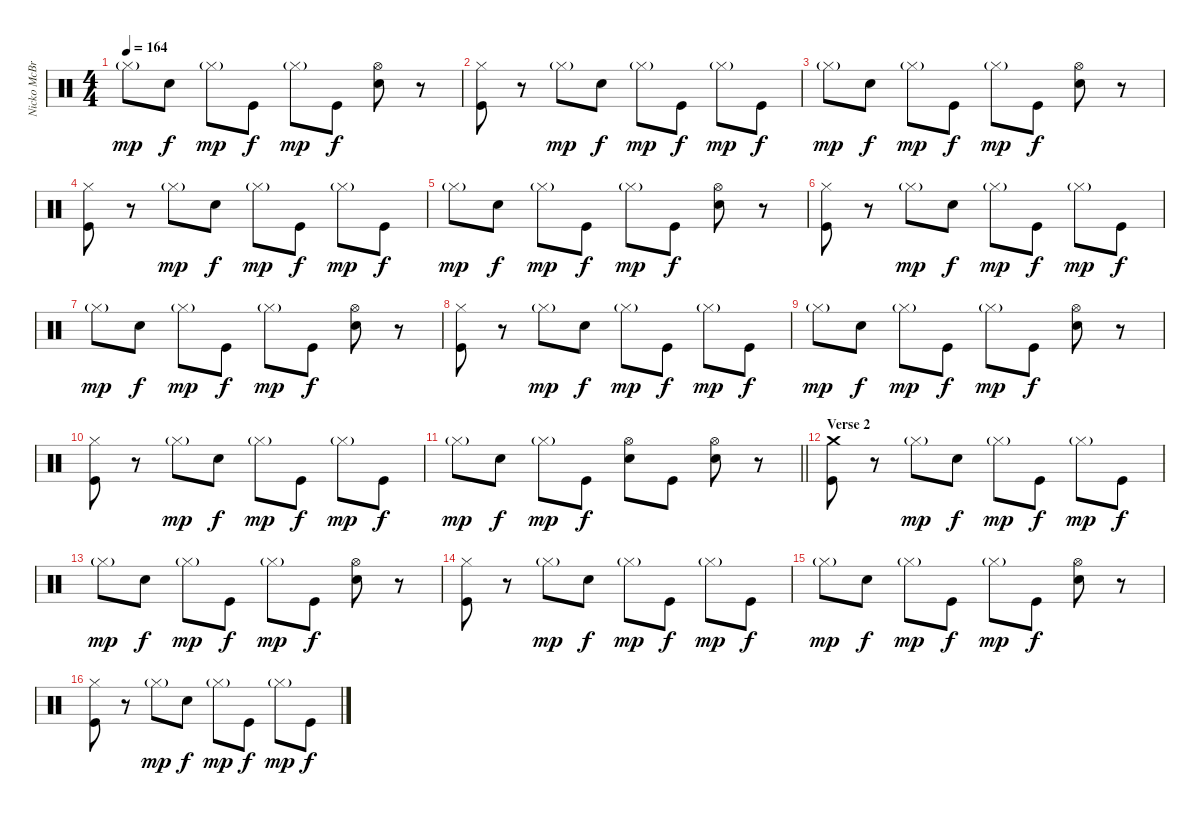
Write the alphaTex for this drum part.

\track ("Nicko McBrain" "Nicko McBr") {instrument percussion}
\staff {score}
\articulation defaults
\ts (4 4)
\tempo 164
\clef neutral
\ks c "Hi-Hat (closed)"{g}.8{dy mp} "Electric Snare (hit)".8{dy f} "Hi-Hat (closed)"{g}.8{dy mp} "Kick (hit)".8{dy f} "Hi-Hat (closed)"{g}.8{dy mp} "Kick (hit)".8{dy f}
("Hi-Hat (open)" "Electric Snare (hit)").8 r.8 |
("Hi-Hat (closed)" "Kick (hit)").8 r.8 "Hi-Hat (closed)"{g}.8{dy mp} "Electric Snare (hit)".8{dy f} "Hi-Hat (closed)"{g}.8{dy mp} "Kick (hit)".8{dy f} "Hi-Hat (closed)"{g}.8{dy mp} "Kick (hit)".8{dy f} |
"Hi-Hat (closed)"{g}.8{dy mp} "Electric Snare (hit)".8{dy f} "Hi-Hat (closed)"{g}.8{dy mp} "Kick (hit)".8{dy f} "Hi-Hat (closed)"{g}.8{dy mp} "Kick (hit)".8{dy f} ("Hi-Hat (open)" "Electric Snare (hit)").8 r.8 |
("Hi-Hat (closed)" "Kick (hit)").8 r.8 "Hi-Hat (closed)"{g}.8{dy mp} "Electric Snare (hit)".8{dy f} "Hi-Hat (closed)"{g}.8{dy mp} "Kick (hit)".8{dy f} "Hi-Hat (closed)"{g}.8{dy mp} "Kick (hit)".8{dy f} |
"Hi-Hat (closed)"{g}.8{dy mp} "Electric Snare (hit)".8{dy f} "Hi-Hat (closed)"{g}.8{dy mp} "Kick (hit)".8{dy f} "Hi-Hat (closed)"{g}.8{dy mp} "Kick (hit)".8{dy f} ("Hi-Hat (open)" "Electric Snare (hit)").8 r.8 |
("Hi-Hat (closed)" "Kick (hit)").8 r.8 "Hi-Hat (closed)"{g}.8{dy mp} "Electric Snare (hit)".8{dy f} "Hi-Hat (closed)"{g}.8{dy mp} "Kick (hit)".8{dy f} "Hi-Hat (closed)"{g}.8{dy mp} "Kick (hit)".8{dy f} |
"Hi-Hat (closed)"{g}.8{dy mp} "Electric Snare (hit)".8{dy f} "Hi-Hat (closed)"{g}.8{dy mp} "Kick (hit)".8{dy f} "Hi-Hat (closed)"{g}.8{dy mp} "Kick (hit)".8{dy f} ("Hi-Hat (open)" "Electric Snare (hit)").8 r.8 |
("Hi-Hat (closed)" "Kick (hit)").8 r.8 "Hi-Hat (closed)"{g}.8{dy mp} "Electric Snare (hit)".8{dy f} "Hi-Hat (closed)"{g}.8{dy mp} "Kick (hit)".8{dy f} "Hi-Hat (closed)"{g}.8{dy mp} "Kick (hit)".8{dy f} |
"Hi-Hat (closed)"{g}.8{dy mp} "Electric Snare (hit)".8{dy f} "Hi-Hat (closed)"{g}.8{dy mp} "Kick (hit)".8{dy f} "Hi-Hat (closed)"{g}.8{dy mp} "Kick (hit)".8{dy f} ("Hi-Hat (open)" "Electric Snare (hit)").8 r.8 |
("Hi-Hat (closed)" "Kick (hit)").8 r.8 "Hi-Hat (closed)"{g}.8{dy mp} "Electric Snare (hit)".8{dy f} "Hi-Hat (closed)"{g}.8{dy mp} "Kick (hit)".8{dy f} "Hi-Hat (closed)"{g}.8{dy mp} "Kick (hit)".8{dy f} |
\barLineRight lightlight "Hi-Hat (closed)"{g}.8{dy mp} "Electric Snare (hit)".8{dy f} "Hi-Hat (closed)"{g}.8{dy mp} "Kick (hit)".8{dy f}
("Hi-Hat (open)" "Electric Snare (hit)").8 "Kick (hit)".8 ("Hi-Hat (open)" "Electric Snare (hit)").8 r.8 |
\section ("" "Verse 2")
("Crash medium (hit)" "Kick (hit)").8 r.8 "Hi-Hat (closed)"{g}.8{dy mp} "Electric Snare (hit)".8{dy f} "Hi-Hat (closed)"{g}.8{dy mp} "Kick (hit)".8{dy f} "Hi-Hat (closed)"{g}.8{dy mp} "Kick (hit)".8{dy f} |
"Hi-Hat (closed)"{g}.8{dy mp} "Electric Snare (hit)".8{dy f} "Hi-Hat (closed)"{g}.8{dy mp} "Kick (hit)".8{dy f} "Hi-Hat (closed)"{g}.8{dy mp} "Kick (hit)".8{dy f} ("Hi-Hat (open)" "Electric Snare (hit)").8 r.8 |
("Hi-Hat (closed)" "Kick (hit)").8 r.8 "Hi-Hat (closed)"{g}.8{dy mp} "Electric Snare (hit)".8{dy f} "Hi-Hat (closed)"{g}.8{dy mp} "Kick (hit)".8{dy f} "Hi-Hat (closed)"{g}.8{dy mp} "Kick (hit)".8{dy f} |
"Hi-Hat (closed)"{g}.8{dy mp} "Electric Snare (hit)".8{dy f} "Hi-Hat (closed)"{g}.8{dy mp} "Kick (hit)".8{dy f} "Hi-Hat (closed)"{g}.8{dy mp} "Kick (hit)".8{dy f} ("Hi-Hat (open)" "Electric Snare (hit)").8 r.8 |
("Hi-Hat (closed)" "Kick (hit)").8 r.8 "Hi-Hat (closed)"{g}.8{dy mp} "Electric Snare (hit)".8{dy f} "Hi-Hat (closed)"{g}.8{dy mp} "Kick (hit)".8{dy f} "Hi-Hat (closed)"{g}.8{dy mp} "Kick (hit)".8{dy f}
